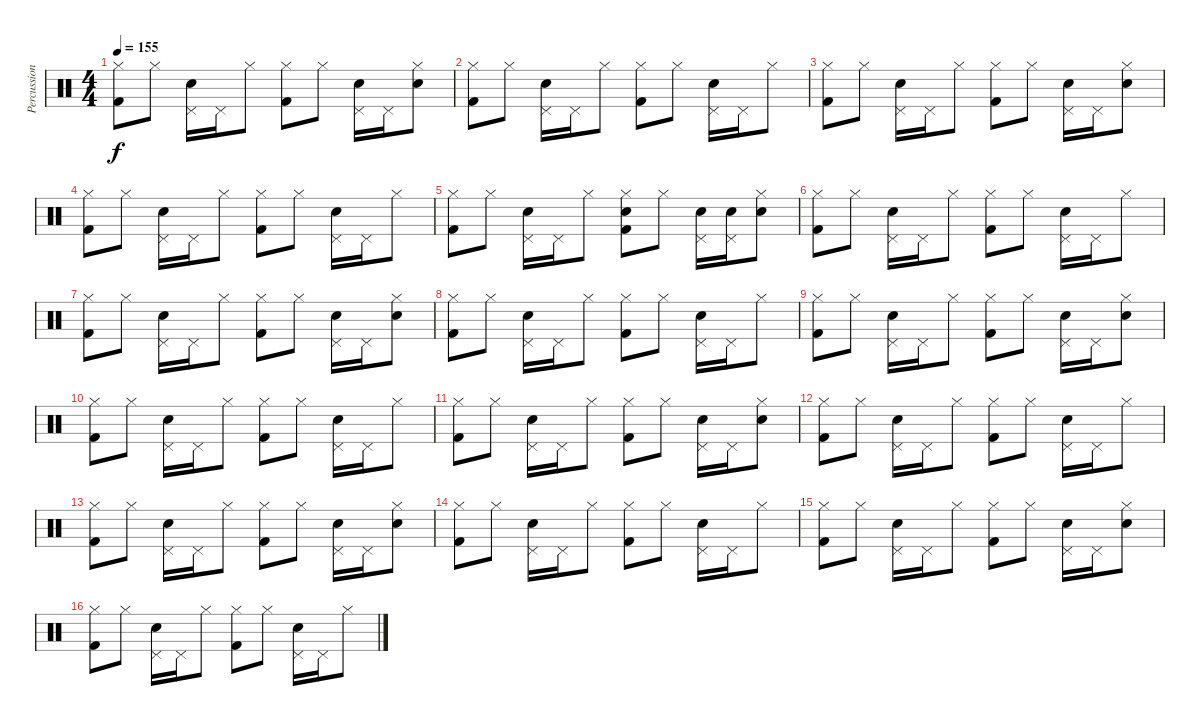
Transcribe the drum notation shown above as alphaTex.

\track ("Percussions" "Percussion") {instrument percussion}
\staff {score}
\articulation defaults
\ts (4 4)
\tempo 155
\clef neutral
\ks c
("Kick (hit) 2" "Hi-Hat (closed)").8{dy f} "Hi-Hat (closed)".8 ("Electric Snare (hit)" "Pedal Hi-Hat (hit)").16 "Pedal Hi-Hat (hit)".16 "Hi-Hat (closed)".8 ("Kick (hit) 2" "Hi-Hat (closed)").8 "Hi-Hat (closed)".8 ("Electric Snare (hit)" "Pedal Hi-Hat (hit)").16 "Pedal Hi-Hat (hit)".16 ("Electric Snare (hit)" "Hi-Hat (closed)").8 |
("Kick (hit) 2" "Hi-Hat (closed)").8 "Hi-Hat (closed)".8 ("Electric Snare (hit)" "Pedal Hi-Hat (hit)").16 "Pedal Hi-Hat (hit)".16 "Hi-Hat (closed)".8 ("Kick (hit) 2" "Hi-Hat (closed)").8 "Hi-Hat (closed)".8 ("Electric Snare (hit)" "Pedal Hi-Hat (hit)").16 "Pedal Hi-Hat (hit)".16 "Hi-Hat (closed)".8 |
("Kick (hit) 2" "Hi-Hat (closed)").8 "Hi-Hat (closed)".8 ("Electric Snare (hit)" "Pedal Hi-Hat (hit)").16 "Pedal Hi-Hat (hit)".16 "Hi-Hat (closed)".8 ("Kick (hit) 2" "Hi-Hat (closed)").8 "Hi-Hat (closed)".8 ("Electric Snare (hit)" "Pedal Hi-Hat (hit)").16 "Pedal Hi-Hat (hit)".16 ("Electric Snare (hit)" "Hi-Hat (closed)").8 |
("Kick (hit) 2" "Hi-Hat (closed)").8 "Hi-Hat (closed)".8 ("Electric Snare (hit)" "Pedal Hi-Hat (hit)").16 "Pedal Hi-Hat (hit)".16 "Hi-Hat (closed)".8 ("Kick (hit) 2" "Hi-Hat (closed)").8 "Hi-Hat (closed)".8 ("Electric Snare (hit)" "Pedal Hi-Hat (hit)").16 "Pedal Hi-Hat (hit)".16 "Hi-Hat (closed)".8 |
("Kick (hit) 2" "Hi-Hat (closed)").8 "Hi-Hat (closed)".8 ("Electric Snare (hit)" "Pedal Hi-Hat (hit)").16 "Pedal Hi-Hat (hit)".16 "Hi-Hat (closed)".8 ("Electric Snare (hit)" "Kick (hit) 2" "Hi-Hat (closed)").8 "Hi-Hat (closed)".8 ("Electric Snare (hit)" "Pedal Hi-Hat (hit)").16 ("Electric Snare (hit)" "Pedal Hi-Hat (hit)").16 ("Electric Snare (hit)" "Hi-Hat (closed)").8 |
("Kick (hit) 2" "Hi-Hat (closed)").8 "Hi-Hat (closed)".8 ("Electric Snare (hit)" "Pedal Hi-Hat (hit)").16 "Pedal Hi-Hat (hit)".16 "Hi-Hat (closed)".8 ("Kick (hit) 2" "Hi-Hat (closed)").8 "Hi-Hat (closed)".8 ("Electric Snare (hit)" "Pedal Hi-Hat (hit)").16 "Pedal Hi-Hat (hit)".16 "Hi-Hat (closed)".8 |
("Kick (hit) 2" "Hi-Hat (closed)").8 "Hi-Hat (closed)".8 ("Electric Snare (hit)" "Pedal Hi-Hat (hit)").16 "Pedal Hi-Hat (hit)".16 "Hi-Hat (closed)".8 ("Kick (hit) 2" "Hi-Hat (closed)").8 "Hi-Hat (closed)".8 ("Electric Snare (hit)" "Pedal Hi-Hat (hit)").16 "Pedal Hi-Hat (hit)".16 ("Electric Snare (hit)" "Hi-Hat (closed)").8 |
("Kick (hit) 2" "Hi-Hat (closed)").8 "Hi-Hat (closed)".8 ("Electric Snare (hit)" "Pedal Hi-Hat (hit)").16 "Pedal Hi-Hat (hit)".16 "Hi-Hat (closed)".8 ("Kick (hit) 2" "Hi-Hat (closed)").8 "Hi-Hat (closed)".8 ("Electric Snare (hit)" "Pedal Hi-Hat (hit)").16 "Pedal Hi-Hat (hit)".16 "Hi-Hat (closed)".8 |
("Kick (hit) 2" "Hi-Hat (closed)").8 "Hi-Hat (closed)".8 ("Electric Snare (hit)" "Pedal Hi-Hat (hit)").16 "Pedal Hi-Hat (hit)".16 "Hi-Hat (closed)".8 ("Kick (hit) 2" "Hi-Hat (closed)").8 "Hi-Hat (closed)".8 ("Electric Snare (hit)" "Pedal Hi-Hat (hit)").16 "Pedal Hi-Hat (hit)".16 ("Electric Snare (hit)" "Hi-Hat (closed)").8 |
("Kick (hit) 2" "Hi-Hat (closed)").8 "Hi-Hat (closed)".8 ("Electric Snare (hit)" "Pedal Hi-Hat (hit)").16 "Pedal Hi-Hat (hit)".16 "Hi-Hat (closed)".8 ("Kick (hit) 2" "Hi-Hat (closed)").8 "Hi-Hat (closed)".8 ("Electric Snare (hit)" "Pedal Hi-Hat (hit)").16 "Pedal Hi-Hat (hit)".16 "Hi-Hat (closed)".8 |
("Kick (hit) 2" "Hi-Hat (closed)").8 "Hi-Hat (closed)".8 ("Electric Snare (hit)" "Pedal Hi-Hat (hit)").16 "Pedal Hi-Hat (hit)".16 "Hi-Hat (closed)".8 ("Kick (hit) 2" "Hi-Hat (closed)").8 "Hi-Hat (closed)".8 ("Electric Snare (hit)" "Pedal Hi-Hat (hit)").16 "Pedal Hi-Hat (hit)".16 ("Electric Snare (hit)" "Hi-Hat (closed)").8 |
("Kick (hit) 2" "Hi-Hat (closed)").8 "Hi-Hat (closed)".8 ("Electric Snare (hit)" "Pedal Hi-Hat (hit)").16 "Pedal Hi-Hat (hit)".16 "Hi-Hat (closed)".8 ("Kick (hit) 2" "Hi-Hat (closed)").8 "Hi-Hat (closed)".8 ("Electric Snare (hit)" "Pedal Hi-Hat (hit)").16 "Pedal Hi-Hat (hit)".16 "Hi-Hat (closed)".8 |
("Kick (hit) 2" "Hi-Hat (closed)").8 "Hi-Hat (closed)".8 ("Electric Snare (hit)" "Pedal Hi-Hat (hit)").16 "Pedal Hi-Hat (hit)".16 "Hi-Hat (closed)".8 ("Kick (hit) 2" "Hi-Hat (closed)").8 "Hi-Hat (closed)".8 ("Electric Snare (hit)" "Pedal Hi-Hat (hit)").16 "Pedal Hi-Hat (hit)".16 ("Electric Snare (hit)" "Hi-Hat (closed)").8 |
("Kick (hit) 2" "Hi-Hat (closed)").8 "Hi-Hat (closed)".8 ("Electric Snare (hit)" "Pedal Hi-Hat (hit)").16 "Pedal Hi-Hat (hit)".16 "Hi-Hat (closed)".8 ("Kick (hit) 2" "Hi-Hat (closed)").8 "Hi-Hat (closed)".8 ("Electric Snare (hit)" "Pedal Hi-Hat (hit)").16 "Pedal Hi-Hat (hit)".16 "Hi-Hat (closed)".8 |
("Kick (hit) 2" "Hi-Hat (closed)").8 "Hi-Hat (closed)".8 ("Electric Snare (hit)" "Pedal Hi-Hat (hit)").16 "Pedal Hi-Hat (hit)".16 "Hi-Hat (closed)".8 ("Kick (hit) 2" "Hi-Hat (closed)").8 "Hi-Hat (closed)".8 ("Electric Snare (hit)" "Pedal Hi-Hat (hit)").16 "Pedal Hi-Hat (hit)".16 ("Electric Snare (hit)" "Hi-Hat (closed)").8 |
("Kick (hit) 2" "Hi-Hat (closed)").8 "Hi-Hat (closed)".8 ("Electric Snare (hit)" "Pedal Hi-Hat (hit)").16 "Pedal Hi-Hat (hit)".16 "Hi-Hat (closed)".8 ("Kick (hit) 2" "Hi-Hat (closed)").8 "Hi-Hat (closed)".8 ("Electric Snare (hit)" "Pedal Hi-Hat (hit)").16 "Pedal Hi-Hat (hit)".16 "Hi-Hat (closed)".8
